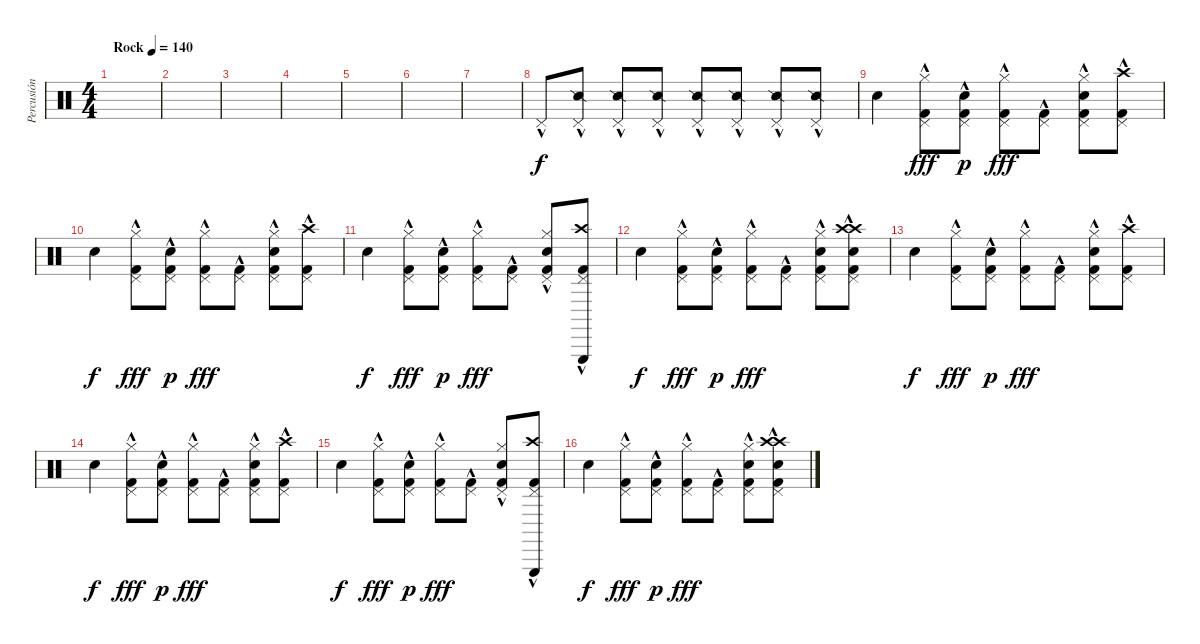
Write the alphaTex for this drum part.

\track ("Percusión" "Percusión") {instrument percussion}
\staff {score}
\articulation defaults
\ts (4 4)
\tempo (140 "Rock")
\clef neutral
\ks c
|
|
|
|
|
|
|
"Pedal Hi-Hat (hit)"{hac}.8 ("Snare (side stick) 2" "Pedal Hi-Hat (hit)"{hac}).8 ("Snare (side stick) 2" "Pedal Hi-Hat (hit)"{hac}).8 ("Snare (side stick) 2" "Pedal Hi-Hat (hit)"{hac}).8 ("Snare (side stick) 2" "Pedal Hi-Hat (hit)"{hac}).8 ("Snare (side stick) 2" "Pedal Hi-Hat (hit)"{hac}).8 ("Snare (side stick) 2" "Pedal Hi-Hat (hit)"{hac}).8 ("Snare (side stick) 2" "Pedal Hi-Hat (hit)"{hac}).8 |
"Snare (hit) 2".4{dy f} ("Kick (hit) 2"{hac} "Pedal Hi-Hat (hit)"{hac} "Hi-Hat (closed)"{hac}).8{dy fff} ("Kick (hit) 2"{hac} "Pedal Hi-Hat (hit)"{hac} "Electric Snare (hit)").8{dy p} ("Kick (hit) 2"{hac} "Pedal Hi-Hat (hit)"{hac} "Hi-Hat (closed)"{hac}).8{dy fff} ("Kick (hit) 2"{hac} "Pedal Hi-Hat (hit)"{hac}).8 ("Kick (hit) 2"{hac} "Pedal Hi-Hat (hit)"{hac} "Electric Snare (hit)" "Hi-Hat (closed)"{hac}).8 ("Kick (hit) 2"{hac} "Pedal Hi-Hat (hit)"{hac} "Crash high (hit)").8 |
"Snare (hit) 2".4{dy f} ("Kick (hit) 2"{hac} "Pedal Hi-Hat (hit)"{hac} "Hi-Hat (closed)"{hac}).8{dy fff} ("Kick (hit) 2"{hac} "Pedal Hi-Hat (hit)"{hac} "Electric Snare (hit)").8{dy p} ("Kick (hit) 2"{hac} "Pedal Hi-Hat (hit)"{hac} "Hi-Hat (closed)"{hac}).8{dy fff} ("Kick (hit) 2"{hac} "Pedal Hi-Hat (hit)"{hac}).8 ("Kick (hit) 2"{hac} "Pedal Hi-Hat (hit)"{hac} "Electric Snare (hit)" "Hi-Hat (closed)"{hac}).8 ("Kick (hit) 2"{hac} "Pedal Hi-Hat (hit)"{hac} "Crash high (hit)").8 |
"Snare (hit) 2".4{dy f} ("Kick (hit) 2"{hac} "Pedal Hi-Hat (hit)"{hac} "Hi-Hat (closed)"{hac}).8{dy fff} ("Kick (hit) 2"{hac} "Pedal Hi-Hat (hit)"{hac} "Electric Snare (hit)").8{dy p} ("Kick (hit) 2"{hac} "Pedal Hi-Hat (hit)"{hac} "Hi-Hat (closed)"{hac}).8{dy fff} ("Kick (hit) 2"{hac} "Pedal Hi-Hat (hit)"{hac}).8 ("Kick (hit) 2"{hac} "Pedal Hi-Hat (hit)"{hac} "Electric Snare (hit)" "Hi-Hat (closed)"{hac}).8 ("Kick (hit) 2"{hac} "Pedal Hi-Hat (hit)"{hac} "Crash high (hit)" "Triangle (hit)"{hac}).8 |
"Snare (hit) 2".4{dy f} ("Kick (hit) 2"{hac} "Pedal Hi-Hat (hit)"{hac} "Hi-Hat (closed)"{hac}).8{dy fff} ("Kick (hit) 2"{hac} "Pedal Hi-Hat (hit)"{hac} "Electric Snare (hit)").8{dy p} ("Kick (hit) 2"{hac} "Pedal Hi-Hat (hit)"{hac} "Hi-Hat (closed)"{hac}).8{dy fff} ("Kick (hit) 2"{hac} "Pedal Hi-Hat (hit)"{hac}).8 ("Kick (hit) 2"{hac} "Pedal Hi-Hat (hit)"{hac} "Snare (hit) 2" "Hi-Hat (closed)"{hac}).8 ("Kick (hit) 2"{hac} "Pedal Hi-Hat (hit)"{hac} "Crash high (hit)" "Crash high (hit)"{hac} "Electric Snare (hit)"{hac}).8 |
"Snare (hit) 2".4{dy f} ("Kick (hit) 2"{hac} "Pedal Hi-Hat (hit)"{hac} "Hi-Hat (closed)"{hac}).8{dy fff} ("Kick (hit) 2"{hac} "Pedal Hi-Hat (hit)"{hac} "Electric Snare (hit)").8{dy p} ("Kick (hit) 2"{hac} "Pedal Hi-Hat (hit)"{hac} "Hi-Hat (closed)"{hac}).8{dy fff} ("Kick (hit) 2"{hac} "Pedal Hi-Hat (hit)"{hac}).8 ("Kick (hit) 2"{hac} "Pedal Hi-Hat (hit)"{hac} "Electric Snare (hit)" "Hi-Hat (closed)"{hac}).8 ("Kick (hit) 2"{hac} "Pedal Hi-Hat (hit)"{hac} "Crash high (hit)").8 |
"Snare (hit) 2".4{dy f} ("Kick (hit) 2"{hac} "Pedal Hi-Hat (hit)"{hac} "Hi-Hat (closed)"{hac}).8{dy fff} ("Kick (hit) 2"{hac} "Pedal Hi-Hat (hit)"{hac} "Electric Snare (hit)").8{dy p} ("Kick (hit) 2"{hac} "Pedal Hi-Hat (hit)"{hac} "Hi-Hat (closed)"{hac}).8{dy fff} ("Kick (hit) 2"{hac} "Pedal Hi-Hat (hit)"{hac}).8 ("Kick (hit) 2"{hac} "Pedal Hi-Hat (hit)"{hac} "Electric Snare (hit)" "Hi-Hat (closed)"{hac}).8 ("Kick (hit) 2"{hac} "Pedal Hi-Hat (hit)"{hac} "Crash high (hit)").8 |
"Snare (hit) 2".4{dy f} ("Kick (hit) 2"{hac} "Pedal Hi-Hat (hit)"{hac} "Hi-Hat (closed)"{hac}).8{dy fff} ("Kick (hit) 2"{hac} "Pedal Hi-Hat (hit)"{hac} "Electric Snare (hit)").8{dy p} ("Kick (hit) 2"{hac} "Pedal Hi-Hat (hit)"{hac} "Hi-Hat (closed)"{hac}).8{dy fff} ("Kick (hit) 2"{hac} "Pedal Hi-Hat (hit)"{hac}).8 ("Kick (hit) 2"{hac} "Pedal Hi-Hat (hit)"{hac} "Electric Snare (hit)" "Hi-Hat (closed)"{hac}).8 ("Kick (hit) 2"{hac} "Pedal Hi-Hat (hit)"{hac} "Crash high (hit)" "Triangle (hit)"{hac}).8 |
"Snare (hit) 2".4{dy f} ("Kick (hit) 2"{hac} "Pedal Hi-Hat (hit)"{hac} "Hi-Hat (closed)"{hac}).8{dy fff} ("Kick (hit) 2"{hac} "Pedal Hi-Hat (hit)"{hac} "Electric Snare (hit)").8{dy p} ("Kick (hit) 2"{hac} "Pedal Hi-Hat (hit)"{hac} "Hi-Hat (closed)"{hac}).8{dy fff} ("Kick (hit) 2"{hac} "Pedal Hi-Hat (hit)"{hac}).8 ("Kick (hit) 2"{hac} "Pedal Hi-Hat (hit)"{hac} "Snare (hit) 2" "Hi-Hat (closed)"{hac}).8 ("Kick (hit) 2"{hac} "Pedal Hi-Hat (hit)"{hac} "Crash high (hit)" "Crash high (hit)"{hac} "Electric Snare (hit)"{hac}).8
